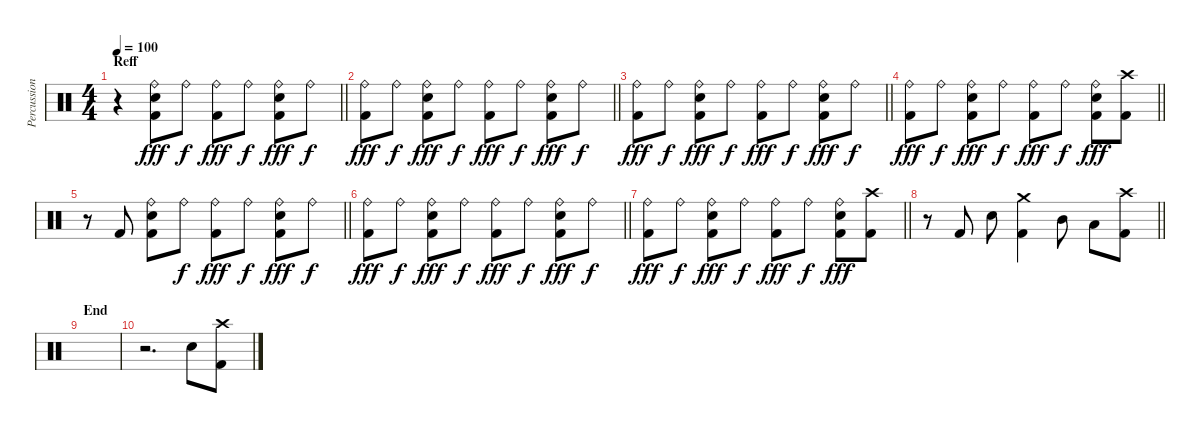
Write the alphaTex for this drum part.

\track ("Percussion" "Percussion") {instrument percussion}
\staff {score}
\articulation defaults
\ts (4 4)
\section ("" "Reff")
\tempo 100
\clef neutral
\barLineRight lightlight
\ks c
r.4{dy fff} ("Ride (bell)" "Electric Snare (hit)" "Kick (hit) 2").8 "Ride (bell)".8{dy f} ("Ride (bell)" "Kick (hit) 2").8{dy fff} "Ride (bell)".8{dy f} ("Ride (bell)" "Electric Snare (hit)" "Kick (hit) 2").8{dy fff} "Ride (bell)".8{dy f} |
\barLineRight lightlight
("Ride (bell)" "Kick (hit) 2").8{dy fff} "Ride (bell)".8{dy f} ("Ride (bell)" "Electric Snare (hit)" "Kick (hit) 2").8{dy fff} "Ride (bell)".8{dy f} ("Ride (bell)" "Kick (hit) 2").8{dy fff} "Ride (bell)".8{dy f} ("Ride (bell)" "Electric Snare (hit)" "Kick (hit) 2").8{dy fff} "Ride (bell)".8{dy f} |
\barLineRight lightlight
("Ride (bell)" "Kick (hit) 2").8{dy fff} "Ride (bell)".8{dy f} ("Ride (bell)" "Electric Snare (hit)" "Kick (hit) 2").8{dy fff} "Ride (bell)".8{dy f} ("Ride (bell)" "Kick (hit) 2").8{dy fff} "Ride (bell)".8{dy f} ("Ride (bell)" "Electric Snare (hit)" "Kick (hit) 2").8{dy fff} "Ride (bell)".8{dy f} |
\barLineRight lightlight
("Ride (bell)" "Kick (hit) 2").8{dy fff} "Ride (bell)".8{dy f} ("Ride (bell)" "Electric Snare (hit)" "Kick (hit) 2").8{dy fff} "Ride (bell)".8{dy f} ("Ride (bell)" "Kick (hit) 2").8{dy fff} "Ride (bell)".8{dy f} ("Ride (bell)" "Electric Snare (hit)" "Kick (hit) 2").8{dy fff} ("Crash high (hit)" "Kick (hit) 2").8 |
\barLineRight lightlight
r.8 "Kick (hit) 2".8 ("Ride (bell)" "Electric Snare (hit)" "Kick (hit) 2").8 "Ride (bell)".8{dy f} ("Ride (bell)" "Kick (hit) 2").8{dy fff} "Ride (bell)".8{dy f} ("Ride (bell)" "Electric Snare (hit)" "Kick (hit) 2").8{dy fff} "Ride (bell)".8{dy f} |
\barLineRight lightlight
("Ride (bell)" "Kick (hit) 2").8{dy fff} "Ride (bell)".8{dy f} ("Ride (bell)" "Electric Snare (hit)" "Kick (hit) 2").8{dy fff} "Ride (bell)".8{dy f} ("Ride (bell)" "Kick (hit) 2").8{dy fff} "Ride (bell)".8{dy f} ("Ride (bell)" "Electric Snare (hit)" "Kick (hit) 2").8{dy fff} "Ride (bell)".8{dy f} |
\barLineRight lightlight
("Ride (bell)" "Kick (hit) 2").8{dy fff} "Ride (bell)".8{dy f} ("Ride (bell)" "Electric Snare (hit)" "Kick (hit) 2").8{dy fff} "Ride (bell)".8{dy f} ("Ride (bell)" "Kick (hit) 2").8{dy fff} "Ride (bell)".8{dy f} ("Ride (bell)" "Electric Snare (hit)" "Kick (hit) 2").8{dy fff} ("Crash high (hit)" "Kick (hit) 2").8 |
\barLineRight lightlight
r.8 "Kick (hit) 2".8 "Electric Snare (hit)".8 ("Crash medium (hit)" "Kick (hit) 2").4 "Mid Tom (hit)".8 "Low Tom (hit)".8 ("Crash high (hit)" "Kick (hit) 2").8 |
\section ("" "End")
|
r.2{d} "Electric Snare (hit)".8 ("Crash high (hit)" "Kick (hit) 2").8
